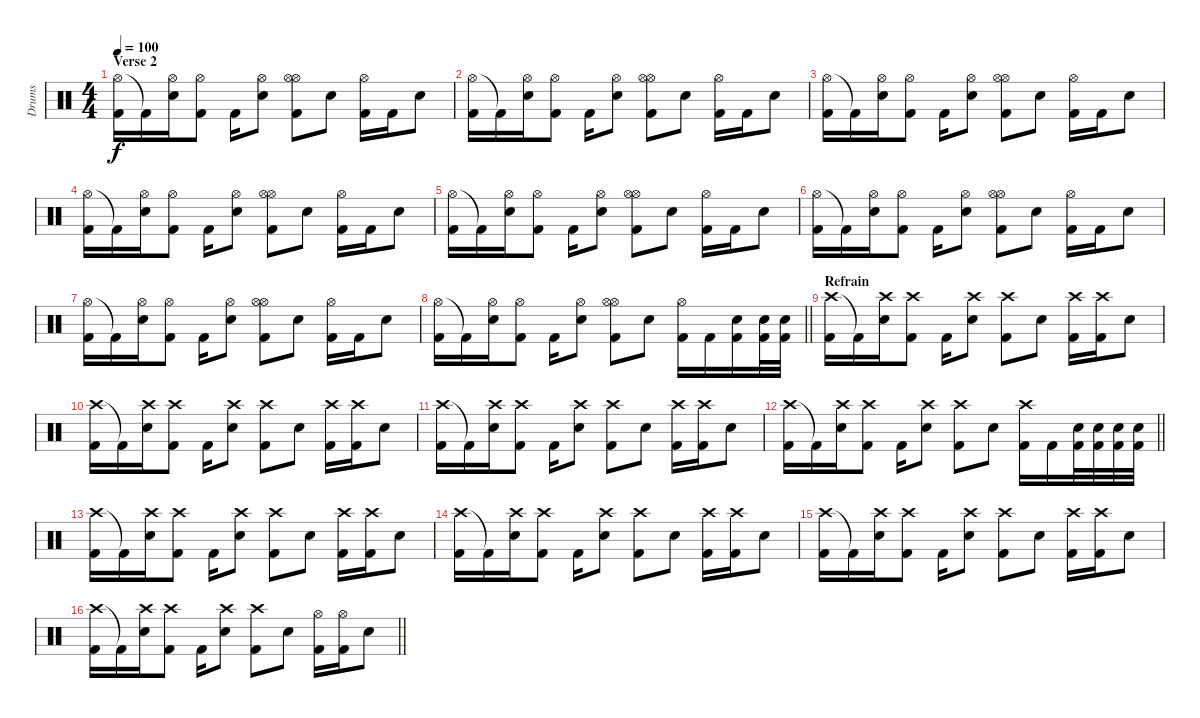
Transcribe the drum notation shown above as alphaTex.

\track ("Drums" "Drums") {instrument percussion}
\staff {score}
\articulation defaults
\ts (4 4)
\section ("" "Verse 2")
\tempo 100
\clef neutral
\ks c
("Hi-Hat (open)" "Kick (hit) 2").16{dy f} "Kick (hit) 2"{t}.16 ("Hi-Hat (open)" "Snare (hit) 2").16 ("Hi-Hat (open)" "Kick (hit) 2").8 "Kick (hit) 2".16 ("Hi-Hat (open)" "Snare (hit) 2").8 ("Hi-Hat (open)" "Hi-Hat (open)" "Kick (hit) 2").8 "Snare (hit) 2".8 ("Hi-Hat (open)" "Kick (hit) 2").16 "Kick (hit) 2".16 "Snare (hit) 2".8 |
("Hi-Hat (open)" "Kick (hit) 2").16 "Kick (hit) 2"{t}.16 ("Hi-Hat (open)" "Snare (hit) 2").16 ("Hi-Hat (open)" "Kick (hit) 2").8 "Kick (hit) 2".16 ("Hi-Hat (open)" "Snare (hit) 2").8 ("Hi-Hat (open)" "Hi-Hat (open)" "Kick (hit) 2").8 "Snare (hit) 2".8 ("Hi-Hat (open)" "Kick (hit) 2").16 "Kick (hit) 2".16 "Snare (hit) 2".8 |
("Hi-Hat (open)" "Kick (hit) 2").16 "Kick (hit) 2"{t}.16 ("Hi-Hat (open)" "Snare (hit) 2").16 ("Hi-Hat (open)" "Kick (hit) 2").8 "Kick (hit) 2".16 ("Hi-Hat (open)" "Snare (hit) 2").8 ("Hi-Hat (open)" "Hi-Hat (open)" "Kick (hit) 2").8 "Snare (hit) 2".8 ("Hi-Hat (open)" "Kick (hit) 2").16 "Kick (hit) 2".16 "Snare (hit) 2".8 |
("Hi-Hat (open)" "Kick (hit) 2").16 "Kick (hit) 2"{t}.16 ("Hi-Hat (open)" "Snare (hit) 2").16 ("Hi-Hat (open)" "Kick (hit) 2").8 "Kick (hit) 2".16 ("Hi-Hat (open)" "Snare (hit) 2").8 ("Hi-Hat (open)" "Hi-Hat (open)" "Kick (hit) 2").8 "Snare (hit) 2".8 ("Hi-Hat (open)" "Kick (hit) 2").16 "Kick (hit) 2".16 "Snare (hit) 2".8 |
("Hi-Hat (open)" "Kick (hit) 2").16 "Kick (hit) 2"{t}.16 ("Hi-Hat (open)" "Snare (hit) 2").16 ("Hi-Hat (open)" "Kick (hit) 2").8 "Kick (hit) 2".16 ("Hi-Hat (open)" "Snare (hit) 2").8 ("Hi-Hat (open)" "Hi-Hat (open)" "Kick (hit) 2").8 "Snare (hit) 2".8 ("Hi-Hat (open)" "Kick (hit) 2").16 "Kick (hit) 2".16 "Snare (hit) 2".8 |
("Hi-Hat (open)" "Kick (hit) 2").16 "Kick (hit) 2"{t}.16 ("Hi-Hat (open)" "Snare (hit) 2").16 ("Hi-Hat (open)" "Kick (hit) 2").8 "Kick (hit) 2".16 ("Hi-Hat (open)" "Snare (hit) 2").8 ("Hi-Hat (open)" "Hi-Hat (open)" "Kick (hit) 2").8 "Snare (hit) 2".8 ("Hi-Hat (open)" "Kick (hit) 2").16 "Kick (hit) 2".16 "Snare (hit) 2".8 |
("Hi-Hat (open)" "Kick (hit) 2").16 "Kick (hit) 2"{t}.16 ("Hi-Hat (open)" "Snare (hit) 2").16 ("Hi-Hat (open)" "Kick (hit) 2").8 "Kick (hit) 2".16 ("Hi-Hat (open)" "Snare (hit) 2").8 ("Hi-Hat (open)" "Hi-Hat (open)" "Kick (hit) 2").8 "Snare (hit) 2".8 ("Hi-Hat (open)" "Kick (hit) 2").16 "Kick (hit) 2".16 "Snare (hit) 2".8 |
\barLineRight lightlight
("Hi-Hat (open)" "Kick (hit) 2").16 "Kick (hit) 2"{t}.16 ("Hi-Hat (open)" "Snare (hit) 2").16 ("Hi-Hat (open)" "Kick (hit) 2").8 "Kick (hit) 2".16 ("Hi-Hat (open)" "Snare (hit) 2").8 ("Hi-Hat (open)" "Hi-Hat (open)" "Kick (hit) 2").8 "Snare (hit) 2".8 ("Hi-Hat (open)" "Kick (hit) 2").16 "Kick (hit) 2".16 ("Snare (hit) 2" "Kick (hit) 2").16 ("Snare (hit) 2" "Kick (hit) 2").32 ("Snare (hit) 2" "Kick (hit) 2").32 |
\section ("" "Refrain")
("Crash high (hit)" "Kick (hit) 2").16 "Kick (hit) 2"{t}.16 ("Crash high (hit)" "Snare (hit) 2").16 ("Crash high (hit)" "Kick (hit) 2").8 "Kick (hit) 2".16 ("Crash high (hit)" "Snare (hit) 2").8 ("Crash high (hit)" "Kick (hit) 2").8 "Snare (hit) 2".8 ("Crash high (hit)" "Kick (hit) 2").16 ("Crash high (hit)" "Kick (hit) 2").16 "Snare (hit) 2".8 |
("Crash high (hit)" "Kick (hit) 2").16 "Kick (hit) 2"{t}.16 ("Crash high (hit)" "Snare (hit) 2").16 ("Crash high (hit)" "Kick (hit) 2").8 "Kick (hit) 2".16 ("Crash high (hit)" "Snare (hit) 2").8 ("Crash high (hit)" "Kick (hit) 2").8 "Snare (hit) 2".8 ("Crash high (hit)" "Kick (hit) 2").16 ("Crash high (hit)" "Kick (hit) 2").16 "Snare (hit) 2".8 |
("Crash high (hit)" "Kick (hit) 2").16 "Kick (hit) 2"{t}.16 ("Crash high (hit)" "Snare (hit) 2").16 ("Crash high (hit)" "Kick (hit) 2").8 "Kick (hit) 2".16 ("Crash high (hit)" "Snare (hit) 2").8 ("Crash high (hit)" "Kick (hit) 2").8 "Snare (hit) 2".8 ("Crash high (hit)" "Kick (hit) 2").16 ("Crash high (hit)" "Kick (hit) 2").16 "Snare (hit) 2".8 |
\barLineRight lightlight
("Crash high (hit)" "Kick (hit) 2").16 "Kick (hit) 2"{t}.16 ("Crash high (hit)" "Snare (hit) 2").16 ("Crash high (hit)" "Kick (hit) 2").8 "Kick (hit) 2".16 ("Crash high (hit)" "Snare (hit) 2").8 ("Crash high (hit)" "Kick (hit) 2").8 "Snare (hit) 2".8 ("Crash high (hit)" "Kick (hit) 2").16 "Kick (hit) 2".16 ("Snare (hit) 2" "Kick (hit) 2").32 ("Snare (hit) 2" "Kick (hit) 2").32 ("Snare (hit) 2" "Kick (hit) 2").32 ("Snare (hit) 2" "Kick (hit) 2").32 |
("Crash high (hit)" "Kick (hit) 2").16 "Kick (hit) 2"{t}.16 ("Crash high (hit)" "Snare (hit) 2").16 ("Crash high (hit)" "Kick (hit) 2").8 "Kick (hit) 2".16 ("Crash high (hit)" "Snare (hit) 2").8 ("Crash high (hit)" "Kick (hit) 2").8 "Snare (hit) 2".8 ("Crash high (hit)" "Kick (hit) 2").16 ("Crash high (hit)" "Kick (hit) 2").16 "Snare (hit) 2".8 |
("Crash high (hit)" "Kick (hit) 2").16 "Kick (hit) 2"{t}.16 ("Crash high (hit)" "Snare (hit) 2").16 ("Crash high (hit)" "Kick (hit) 2").8 "Kick (hit) 2".16 ("Crash high (hit)" "Snare (hit) 2").8 ("Crash high (hit)" "Kick (hit) 2").8 "Snare (hit) 2".8 ("Crash high (hit)" "Kick (hit) 2").16 ("Crash high (hit)" "Kick (hit) 2").16 "Snare (hit) 2".8 |
("Crash high (hit)" "Kick (hit) 2").16 "Kick (hit) 2"{t}.16 ("Crash high (hit)" "Snare (hit) 2").16 ("Crash high (hit)" "Kick (hit) 2").8 "Kick (hit) 2".16 ("Crash high (hit)" "Snare (hit) 2").8 ("Crash high (hit)" "Kick (hit) 2").8 "Snare (hit) 2".8 ("Crash high (hit)" "Kick (hit) 2").16 ("Crash high (hit)" "Kick (hit) 2").16 "Snare (hit) 2".8 |
\barLineRight lightlight
("Crash high (hit)" "Kick (hit) 2").16 "Kick (hit) 2"{t}.16 ("Crash high (hit)" "Snare (hit) 2").16 ("Crash high (hit)" "Kick (hit) 2").8 "Kick (hit) 2".16 ("Crash high (hit)" "Snare (hit) 2").8 ("Crash high (hit)" "Kick (hit) 2").8 "Snare (hit) 2".8 ("Hi-Hat (open)" "Kick (hit) 2").16 ("Hi-Hat (open)" "Kick (hit) 2").16 "Snare (hit) 2".8
